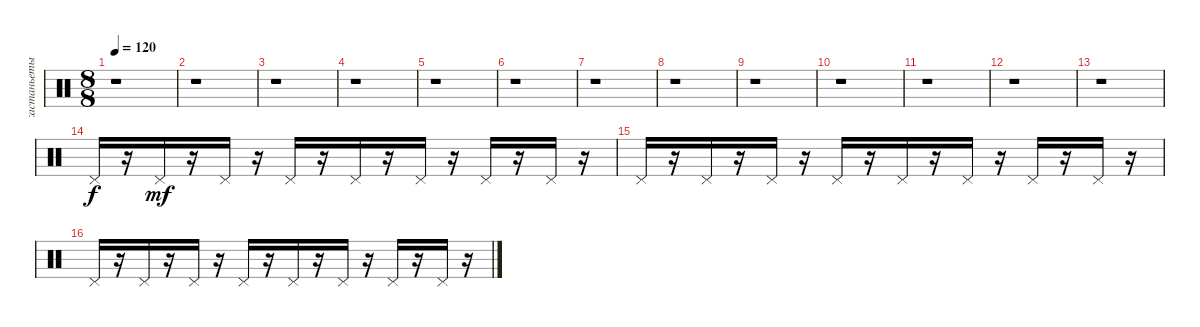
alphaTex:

\track ("кастаньеты" "кастаньеты") {instrument percussion}
\staff {score}
\articulation defaults
\ts (8 8)
\tempo 120
\clef neutral
\ks c
r.1{dy f} |
r.1 |
r.1 |
r.1 |
r.1 |
r.1 |
r.1 |
r.1 |
r.1 |
r.1 |
r.1 |
r.1 |
r.1 |
"Pedal Hi-Hat (hit)".16 r.16 "Pedal Hi-Hat (hit)".16{dy mf} r.16 "Pedal Hi-Hat (hit)".16 r.16 "Pedal Hi-Hat (hit)".16 r.16 "Pedal Hi-Hat (hit)".16 r.16 "Pedal Hi-Hat (hit)".16 r.16 "Pedal Hi-Hat (hit)".16 r.16 "Pedal Hi-Hat (hit)".16 r.16 |
"Pedal Hi-Hat (hit)".16 r.16 "Pedal Hi-Hat (hit)".16 r.16 "Pedal Hi-Hat (hit)".16 r.16 "Pedal Hi-Hat (hit)".16 r.16 "Pedal Hi-Hat (hit)".16 r.16 "Pedal Hi-Hat (hit)".16 r.16 "Pedal Hi-Hat (hit)".16 r.16 "Pedal Hi-Hat (hit)".16 r.16 |
"Pedal Hi-Hat (hit)".16 r.16 "Pedal Hi-Hat (hit)".16 r.16 "Pedal Hi-Hat (hit)".16 r.16 "Pedal Hi-Hat (hit)".16 r.16 "Pedal Hi-Hat (hit)".16 r.16 "Pedal Hi-Hat (hit)".16 r.16 "Pedal Hi-Hat (hit)".16 r.16 "Pedal Hi-Hat (hit)".16 r.16
